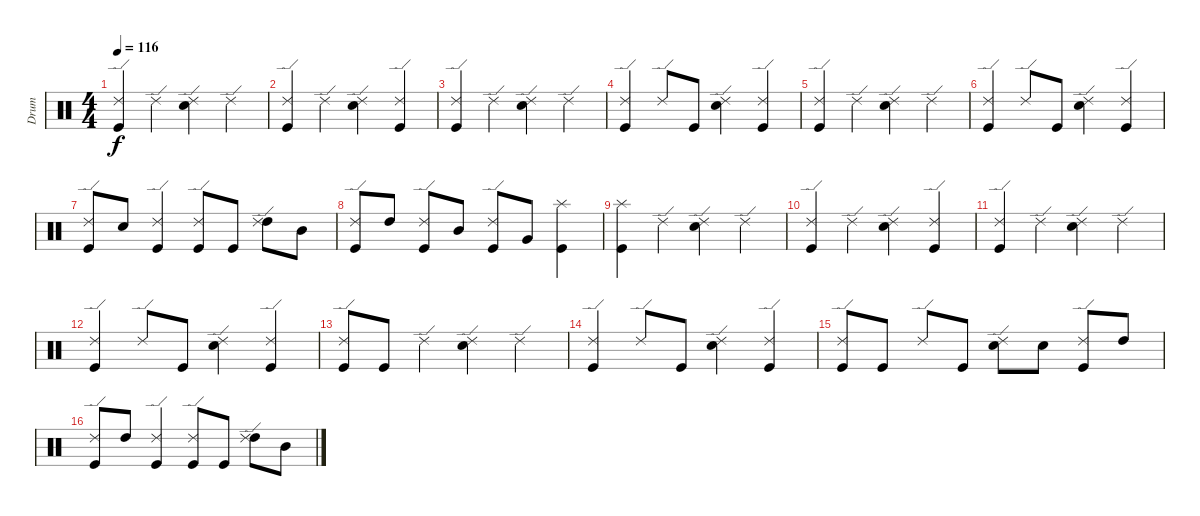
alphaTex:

\track ("Drum" "Drum") {instrument percussion}
\staff {score}
\articulation defaults
\ts (4 4)
\tempo 116
\clef neutral
\ks c
("Kick (hit)" "Ride (edge) 2").4{dy f} "Ride (edge) 2".4 ("Electric Snare (hit)" "Ride (edge) 2").4 "Ride (edge) 2".4 |
("Kick (hit)" "Ride (edge) 2").4 "Ride (edge) 2".4 ("Electric Snare (hit)" "Ride (edge) 2").4 ("Kick (hit)" "Ride (edge) 2").4 |
("Kick (hit)" "Ride (edge) 2").4 "Ride (edge) 2".4 ("Electric Snare (hit)" "Ride (edge) 2").4 "Ride (edge) 2".4 |
("Kick (hit)" "Ride (edge) 2").4 "Ride (edge) 2".8 "Kick (hit)".8 ("Electric Snare (hit)" "Ride (edge) 2").4 ("Kick (hit)" "Ride (edge) 2").4 |
("Kick (hit)" "Ride (edge) 2").4 "Ride (edge) 2".4 ("Electric Snare (hit)" "Ride (edge) 2").4 "Ride (edge) 2".4 |
("Kick (hit)" "Ride (edge) 2").4 "Ride (edge) 2".8 "Kick (hit)".8 ("Electric Snare (hit)" "Ride (edge) 2").4 ("Kick (hit)" "Ride (edge) 2").4 |
("Kick (hit)" "Ride (edge) 2").8 "Electric Snare (hit)".8 ("Kick (hit)" "Ride (edge) 2").4 ("Kick (hit)" "Ride (edge) 2").8 "Kick (hit)".8 ("High Tom (hit)" "Ride (edge) 2").8 "Mid Tom (hit)".8 |
("Kick (hit)" "Ride (edge) 2").8 "High Tom (hit)".8 ("Kick (hit)" "Ride (edge) 2").8 "Mid Tom (hit)".8 ("Kick (hit)" "Ride (edge) 2").8 "Very Low Tom (hit)".8 ("Kick (hit)" "Splash (hit)").4 |
("Kick (hit)" "Splash (hit)").4 "Ride (edge) 2".4 ("Electric Snare (hit)" "Ride (edge) 2").4 "Ride (edge) 2".4 |
("Kick (hit)" "Ride (edge) 2").4 "Ride (edge) 2".4 ("Electric Snare (hit)" "Ride (edge) 2").4 ("Kick (hit)" "Ride (edge) 2").4 |
("Kick (hit)" "Ride (edge) 2").4 "Ride (edge) 2".4 ("Electric Snare (hit)" "Ride (edge) 2").4 "Ride (edge) 2".4 |
("Kick (hit)" "Ride (edge) 2").4 "Ride (edge) 2".8 "Kick (hit)".8 ("Electric Snare (hit)" "Ride (edge) 2").4 ("Kick (hit)" "Ride (edge) 2").4 |
("Kick (hit)" "Ride (edge) 2").8 "Kick (hit)".8 "Ride (edge) 2".4 ("Electric Snare (hit)" "Ride (edge) 2").4 "Ride (edge) 2".4 |
("Kick (hit)" "Ride (edge) 2").4 "Ride (edge) 2".8 "Kick (hit)".8 ("Electric Snare (hit)" "Ride (edge) 2").4 ("Kick (hit)" "Ride (edge) 2").4 |
("Kick (hit)" "Ride (edge) 2").8 "Kick (hit)".8 "Ride (edge) 2".8 "Kick (hit)".8 ("Electric Snare (hit)" "Ride (edge) 2").8 "Electric Snare (hit)".8 ("Kick (hit)" "Ride (edge) 2").8 "High Tom (hit)".8 |
("Kick (hit)" "Ride (edge) 2").8 "High Tom (hit)".8 ("Kick (hit)" "Ride (edge) 2").4 ("Kick (hit)" "Ride (edge) 2").8 "Kick (hit)".8 ("High Tom (hit)" "Ride (edge) 2").8 "Mid Tom (hit)".8
